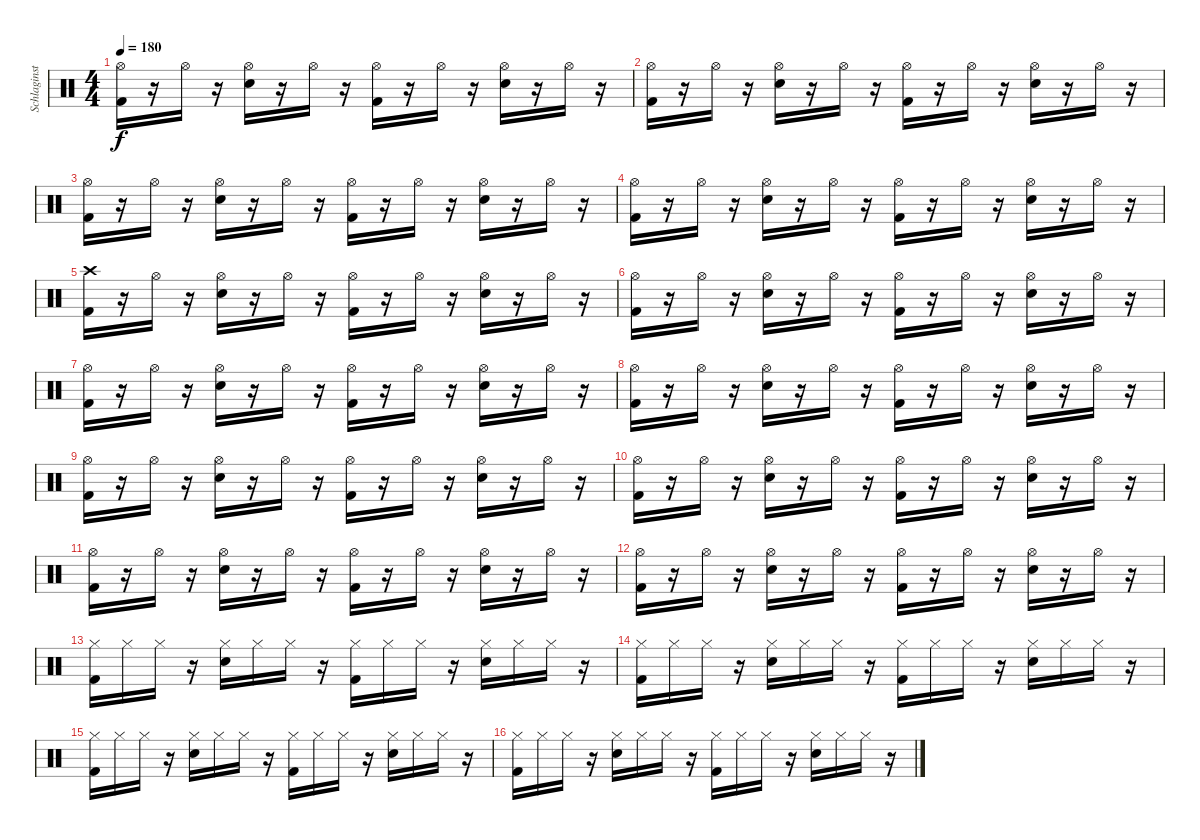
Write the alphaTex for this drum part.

\track ("Schlaginstrumente - Auswahl" "Schlaginst") {instrument percussion}
\staff {score}
\articulation defaults
\ts (4 4)
\tempo 180
\clef neutral
\ks c
("Hi-Hat (open)" "Kick (hit) 2").16{dy f} r.16 "Hi-Hat (open)".16 r.16 ("Hi-Hat (open)" "Snare (hit) 2").16 r.16 "Hi-Hat (open)".16 r.16 ("Hi-Hat (open)" "Kick (hit) 2").16 r.16 "Hi-Hat (open)".16 r.16 ("Hi-Hat (open)" "Snare (hit) 2").16 r.16 "Hi-Hat (open)".16 r.16 |
("Hi-Hat (open)" "Kick (hit) 2").16 r.16 "Hi-Hat (open)".16 r.16 ("Hi-Hat (open)" "Snare (hit) 2").16 r.16 "Hi-Hat (open)".16 r.16 ("Hi-Hat (open)" "Kick (hit) 2").16 r.16 "Hi-Hat (open)".16 r.16 ("Hi-Hat (open)" "Snare (hit) 2").16 r.16 "Hi-Hat (open)".16 r.16 |
("Hi-Hat (open)" "Kick (hit) 2").16 r.16 "Hi-Hat (open)".16 r.16 ("Hi-Hat (open)" "Snare (hit) 2").16 r.16 "Hi-Hat (open)".16 r.16 ("Hi-Hat (open)" "Kick (hit) 2").16 r.16 "Hi-Hat (open)".16 r.16 ("Hi-Hat (open)" "Snare (hit) 2").16 r.16 "Hi-Hat (open)".16 r.16 |
("Hi-Hat (open)" "Kick (hit) 2").16 r.16 "Hi-Hat (open)".16 r.16 ("Hi-Hat (open)" "Snare (hit) 2").16 r.16 "Hi-Hat (open)".16 r.16 ("Hi-Hat (open)" "Kick (hit) 2").16 r.16 "Hi-Hat (open)".16 r.16 ("Hi-Hat (open)" "Snare (hit) 2").16 r.16 "Hi-Hat (open)".16 r.16 |
("Crash high (hit)" "Kick (hit) 2").16 r.16 "Hi-Hat (open)".16 r.16 ("Hi-Hat (open)" "Snare (hit) 2").16 r.16 "Hi-Hat (open)".16 r.16 ("Hi-Hat (open)" "Kick (hit) 2").16 r.16 "Hi-Hat (open)".16 r.16 ("Hi-Hat (open)" "Snare (hit) 2").16 r.16 "Hi-Hat (open)".16 r.16 |
("Hi-Hat (open)" "Kick (hit) 2").16 r.16 "Hi-Hat (open)".16 r.16 ("Hi-Hat (open)" "Snare (hit) 2").16 r.16 "Hi-Hat (open)".16 r.16 ("Hi-Hat (open)" "Kick (hit) 2").16 r.16 "Hi-Hat (open)".16 r.16 ("Hi-Hat (open)" "Snare (hit) 2").16 r.16 "Hi-Hat (open)".16 r.16 |
("Hi-Hat (open)" "Kick (hit) 2").16 r.16 "Hi-Hat (open)".16 r.16 ("Hi-Hat (open)" "Snare (hit) 2").16 r.16 "Hi-Hat (open)".16 r.16 ("Hi-Hat (open)" "Kick (hit) 2").16 r.16 "Hi-Hat (open)".16 r.16 ("Hi-Hat (open)" "Snare (hit) 2").16 r.16 "Hi-Hat (open)".16 r.16 |
("Hi-Hat (open)" "Kick (hit) 2").16 r.16 "Hi-Hat (open)".16 r.16 ("Hi-Hat (open)" "Snare (hit) 2").16 r.16 "Hi-Hat (open)".16 r.16 ("Hi-Hat (open)" "Kick (hit) 2").16 r.16 "Hi-Hat (open)".16 r.16 ("Hi-Hat (open)" "Snare (hit) 2").16 r.16 "Hi-Hat (open)".16 r.16 |
("Hi-Hat (open)" "Kick (hit) 2").16 r.16 "Hi-Hat (open)".16 r.16 ("Hi-Hat (open)" "Snare (hit) 2").16 r.16 "Hi-Hat (open)".16 r.16 ("Hi-Hat (open)" "Kick (hit) 2").16 r.16 "Hi-Hat (open)".16 r.16 ("Hi-Hat (open)" "Snare (hit) 2").16 r.16 "Hi-Hat (open)".16 r.16 |
("Hi-Hat (open)" "Kick (hit) 2").16 r.16 "Hi-Hat (open)".16 r.16 ("Hi-Hat (open)" "Snare (hit) 2").16 r.16 "Hi-Hat (open)".16 r.16 ("Hi-Hat (open)" "Kick (hit) 2").16 r.16 "Hi-Hat (open)".16 r.16 ("Hi-Hat (open)" "Snare (hit) 2").16 r.16 "Hi-Hat (open)".16 r.16 |
("Hi-Hat (open)" "Kick (hit) 2").16 r.16 "Hi-Hat (open)".16 r.16 ("Hi-Hat (open)" "Snare (hit) 2").16 r.16 "Hi-Hat (open)".16 r.16 ("Hi-Hat (open)" "Kick (hit) 2").16 r.16 "Hi-Hat (open)".16 r.16 ("Hi-Hat (open)" "Snare (hit) 2").16 r.16 "Hi-Hat (open)".16 r.16 |
("Hi-Hat (open)" "Kick (hit) 2").16 r.16 "Hi-Hat (open)".16 r.16 ("Hi-Hat (open)" "Snare (hit) 2").16 r.16 "Hi-Hat (open)".16 r.16 ("Hi-Hat (open)" "Kick (hit) 2").16 r.16 "Hi-Hat (open)".16 r.16 ("Hi-Hat (open)" "Snare (hit) 2").16 r.16 "Hi-Hat (open)".16 r.16 |
("Hi-Hat (closed)" "Kick (hit) 2").16 "Hi-Hat (closed)".16 "Hi-Hat (closed)".16 r.16 ("Hi-Hat (closed)" "Snare (hit) 2").16 "Hi-Hat (closed)".16 "Hi-Hat (closed)".16 r.16 ("Hi-Hat (closed)" "Kick (hit) 2").16 "Hi-Hat (closed)".16 "Hi-Hat (closed)".16 r.16 ("Hi-Hat (closed)" "Snare (hit) 2").16 "Hi-Hat (closed)".16 "Hi-Hat (closed)".16 r.16 |
("Hi-Hat (closed)" "Kick (hit) 2").16 "Hi-Hat (closed)".16 "Hi-Hat (closed)".16 r.16 ("Hi-Hat (closed)" "Snare (hit) 2").16 "Hi-Hat (closed)".16 "Hi-Hat (closed)".16 r.16 ("Hi-Hat (closed)" "Kick (hit) 2").16 "Hi-Hat (closed)".16 "Hi-Hat (closed)".16 r.16 ("Hi-Hat (closed)" "Snare (hit) 2").16 "Hi-Hat (closed)".16 "Hi-Hat (closed)".16 r.16 |
("Hi-Hat (closed)" "Kick (hit) 2").16 "Hi-Hat (closed)".16 "Hi-Hat (closed)".16 r.16 ("Hi-Hat (closed)" "Snare (hit) 2").16 "Hi-Hat (closed)".16 "Hi-Hat (closed)".16 r.16 ("Hi-Hat (closed)" "Kick (hit) 2").16 "Hi-Hat (closed)".16 "Hi-Hat (closed)".16 r.16 ("Hi-Hat (closed)" "Snare (hit) 2").16 "Hi-Hat (closed)".16 "Hi-Hat (closed)".16 r.16 |
("Hi-Hat (closed)" "Kick (hit) 2").16 "Hi-Hat (closed)".16 "Hi-Hat (closed)".16 r.16 ("Hi-Hat (closed)" "Snare (hit) 2").16 "Hi-Hat (closed)".16 "Hi-Hat (closed)".16 r.16 ("Hi-Hat (closed)" "Kick (hit) 2").16 "Hi-Hat (closed)".16 "Hi-Hat (closed)".16 r.16 ("Hi-Hat (closed)" "Snare (hit) 2").16 "Hi-Hat (closed)".16 "Hi-Hat (closed)".16 r.16
